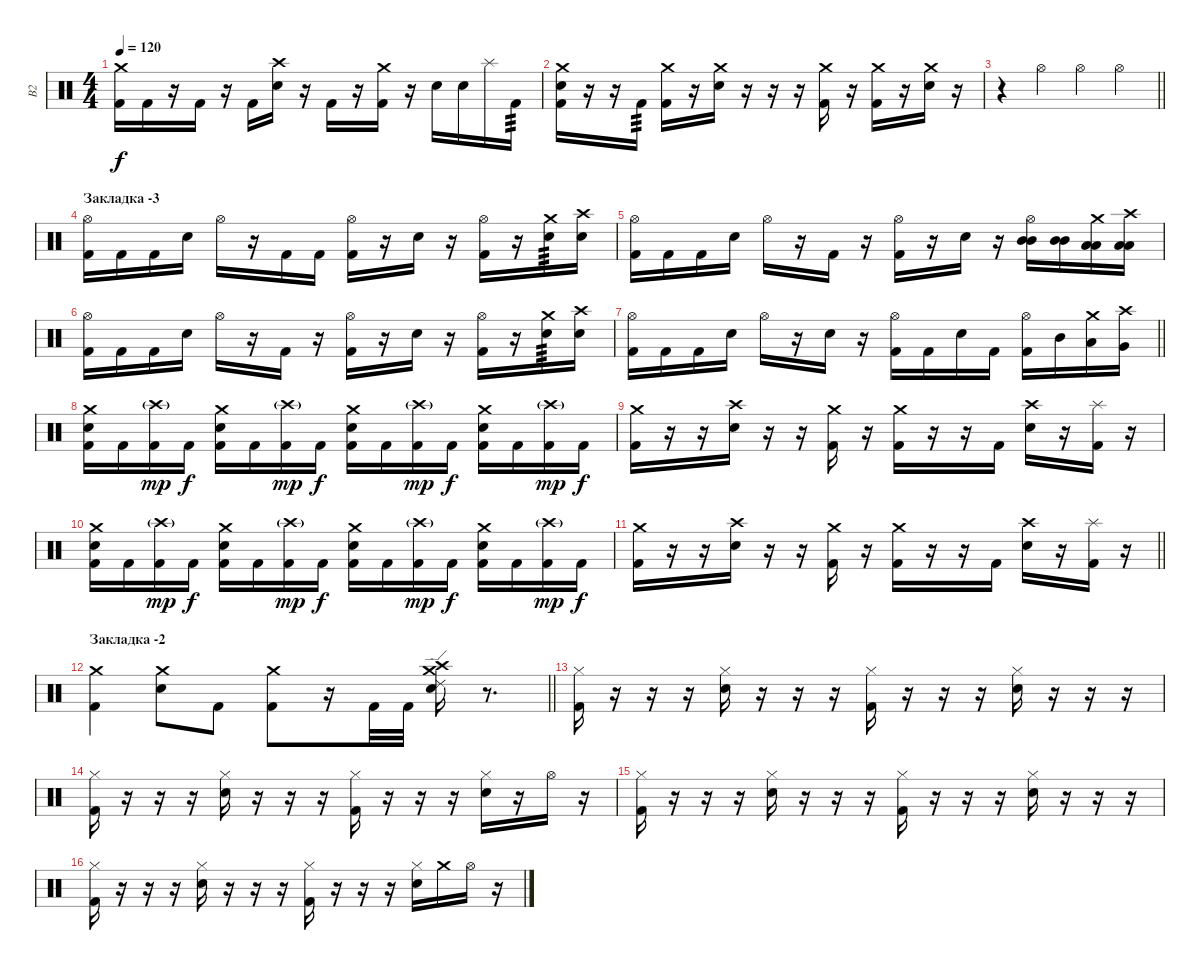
\track ("В2" "В2") {instrument percussion}
\staff {score}
\articulation defaults
\ts (4 4)
\tempo 120
\clef neutral
\ks c
("Crash medium (hit)" "Kick (hit) 2").16{dy f} "Kick (hit) 2".16 r.16 "Kick (hit) 2".16 r.16 "Kick (hit) 2".16 ("Crash high (hit)" "Snare (hit) 2").16 r.16 "Kick (hit) 2".16 r.16 ("Crash medium (hit)" "Kick (hit) 2").16 r.16 "Snare (hit) 2".16 "Snare (hit) 2".16 "Splash (hit)".16 "Kick (hit) 2".16{tp 3} |
("Crash medium (hit)" "Snare (hit) 2" "Kick (hit) 2").16 r.16 r.16 "Kick (hit) 2".16{tp 3} ("Crash medium (hit)" "Kick (hit) 2").16 r.16 ("Crash medium (hit)" "Snare (hit) 2").16 r.16 r.16 r.16 ("Crash medium (hit)" "Kick (hit) 2").16 r.16 ("Crash medium (hit)" "Kick (hit) 2").16 r.16 ("Crash medium (hit)" "Snare (hit) 2").16 r.16 |
\barLineRight lightlight
r.4 "Hi-Hat (open)".4 "Hi-Hat (open)".4 "Hi-Hat (open)".4 |
\section ("" "Закладка -3")
("Hi-Hat (open)" "Kick (hit) 2").16 "Kick (hit) 2".16 "Kick (hit) 2".16 "Snare (hit) 2".16 "Hi-Hat (open)".16 r.16 "Kick (hit) 2".16 "Kick (hit) 2".16 ("Hi-Hat (open)" "Kick (hit) 2").16 r.16 "Snare (hit) 2".16 r.16 ("Hi-Hat (open)" "Kick (hit) 2").16 r.16 ("Crash medium (hit)" "Snare (hit) 2").16{tp 3} ("Crash high (hit)" "Snare (hit) 2").16 |
("Hi-Hat (open)" "Kick (hit) 2").16 "Kick (hit) 2".16 "Kick (hit) 2".16 "Snare (hit) 2".16 "Hi-Hat (open)".16 r.16 "Kick (hit) 2".16 r.16 ("Hi-Hat (open)" "Kick (hit) 2").16 r.16 "Snare (hit) 2".16 r.16 ("Hi-Hat (open)" "Mid Tom (hit)" "Mid Tom (hit)").16 ("Mid Tom (hit)" "Mid Tom (hit)").16 ("Crash medium (hit)" "Low Tom (hit)" "Low Tom (hit)").16 ("Crash high (hit)" "Low Tom (hit)" "Low Tom (hit)").16 |
("Hi-Hat (open)" "Kick (hit) 2").16 "Kick (hit) 2".16 "Kick (hit) 2".16 "Snare (hit) 2".16 "Hi-Hat (open)".16 r.16 "Kick (hit) 2".16 r.16 ("Hi-Hat (open)" "Kick (hit) 2").16 r.16 "Snare (hit) 2".16 r.16 ("Hi-Hat (open)" "Kick (hit) 2").16 r.16 ("Crash medium (hit)" "Snare (hit) 2").16{tp 3} ("Crash high (hit)" "Snare (hit) 2").16 |
\barLineRight lightlight
("Hi-Hat (open)" "Kick (hit) 2").16 "Kick (hit) 2".16 "Kick (hit) 2".16 "Snare (hit) 2".16 "Hi-Hat (open)".16 r.16 "Snare (hit) 2".16 r.16 ("Hi-Hat (open)" "Kick (hit) 2").16 "Kick (hit) 2".16 "Snare (hit) 2".16 "Kick (hit) 2".16 ("Hi-Hat (open)" "Kick (hit) 2").16 "Mid Tom (hit)".16 ("Crash medium (hit)" "Low Tom (hit)").16 ("Crash high (hit)" "Very Low Tom (hit)").16 |
("Crash medium (hit)" "Snare (hit) 2" "Kick (hit) 2").16 "Kick (hit) 2".16 ("Crash high (hit)"{g} "Kick (hit) 2").16{dy mp} "Kick (hit) 2".16{dy f} ("Crash medium (hit)" "Snare (hit) 2" "Kick (hit) 2").16 "Kick (hit) 2".16 ("Crash high (hit)"{g} "Kick (hit) 2").16{dy mp} "Kick (hit) 2".16{dy f} ("Crash medium (hit)" "Snare (hit) 2" "Kick (hit) 2").16 "Kick (hit) 2".16 ("Crash high (hit)"{g} "Kick (hit) 2").16{dy mp} "Kick (hit) 2".16{dy f} ("Crash medium (hit)" "Snare (hit) 2" "Kick (hit) 2").16 "Kick (hit) 2".16 ("Crash high (hit)"{g} "Kick (hit) 2").16{dy mp} "Kick (hit) 2".16{dy f} |
("Crash medium (hit)" "Kick (hit) 2").16 r.16 r.16 ("Crash high (hit)" "Snare (hit) 2").16 r.16 r.16 ("Crash medium (hit)" "Kick (hit) 2").16 r.16 ("Crash medium (hit)" "Kick (hit) 2").16 r.16 r.16 "Kick (hit) 2".16 ("Crash high (hit)" "Snare (hit) 2").16 r.16 ("Splash (hit)" "Kick (hit) 2").16 r.16 |
("Crash medium (hit)" "Snare (hit) 2" "Kick (hit) 2").16 "Kick (hit) 2".16 ("Crash high (hit)"{g} "Kick (hit) 2").16{dy mp} "Kick (hit) 2".16{dy f} ("Crash medium (hit)" "Snare (hit) 2" "Kick (hit) 2").16 "Kick (hit) 2".16 ("Crash high (hit)"{g} "Kick (hit) 2").16{dy mp} "Kick (hit) 2".16{dy f} ("Crash medium (hit)" "Snare (hit) 2" "Kick (hit) 2").16 "Kick (hit) 2".16 ("Crash high (hit)"{g} "Kick (hit) 2").16{dy mp} "Kick (hit) 2".16{dy f} ("Crash medium (hit)" "Snare (hit) 2" "Kick (hit) 2").16 "Kick (hit) 2".16 ("Crash high (hit)"{g} "Kick (hit) 2").16{dy mp} "Kick (hit) 2".16{dy f} |
\barLineRight lightlight
("Crash medium (hit)" "Kick (hit) 2").16 r.16 r.16 ("Crash high (hit)" "Snare (hit) 2").16 r.16 r.16 ("Crash medium (hit)" "Kick (hit) 2").16 r.16 ("Crash medium (hit)" "Kick (hit) 2").16 r.16 r.16 "Kick (hit) 2".16 ("Crash high (hit)" "Snare (hit) 2").16 r.16 ("Splash (hit)" "Kick (hit) 2").16 r.16 |
\section ("" "Закладка -2")
\barLineRight lightlight
("Crash medium (hit)" "Kick (hit) 2").4 ("Crash medium (hit)" "Snare (hit) 2").8 "Kick (hit) 2".8 ("Crash medium (hit)" "Kick (hit) 2").8 r.16 "Kick (hit) 2".32 "Kick (hit) 2".32 ("Ride (edge) 2" "Crash high (hit)" "Crash medium (hit)" "Snare (hit) 2").16 r.8{d} |
("Hi-Hat (closed)" "Kick (hit) 2").16 r.16 r.16 r.16 ("Hi-Hat (closed)" "Snare (hit) 2").16 r.16 r.16 r.16 ("Hi-Hat (closed)" "Kick (hit) 2").16 r.16 r.16 r.16 ("Hi-Hat (closed)" "Snare (hit) 2").16 r.16 r.16 r.16 |
("Hi-Hat (closed)" "Kick (hit) 2").16 r.16 r.16 r.16 ("Hi-Hat (closed)" "Snare (hit) 2").16 r.16 r.16 r.16 ("Hi-Hat (closed)" "Kick (hit) 2").16 r.16 r.16 r.16 ("Hi-Hat (closed)" "Snare (hit) 2").16 r.16 "Hi-Hat (open)".16 r.16 |
("Hi-Hat (closed)" "Kick (hit) 2").16 r.16 r.16 r.16 ("Hi-Hat (closed)" "Snare (hit) 2").16 r.16 r.16 r.16 ("Hi-Hat (closed)" "Kick (hit) 2").16 r.16 r.16 r.16 ("Hi-Hat (closed)" "Snare (hit) 2").16 r.16 r.16 r.16 |
("Hi-Hat (closed)" "Kick (hit) 2").16 r.16 r.16 r.16 ("Hi-Hat (closed)" "Snare (hit) 2").16 r.16 r.16 r.16 ("Hi-Hat (closed)" "Kick (hit) 2").16 r.16 r.16 r.16 ("Hi-Hat (closed)" "Snare (hit) 2").16 "Crash medium (hit)".16 "Hi-Hat (open)".16 r.16
